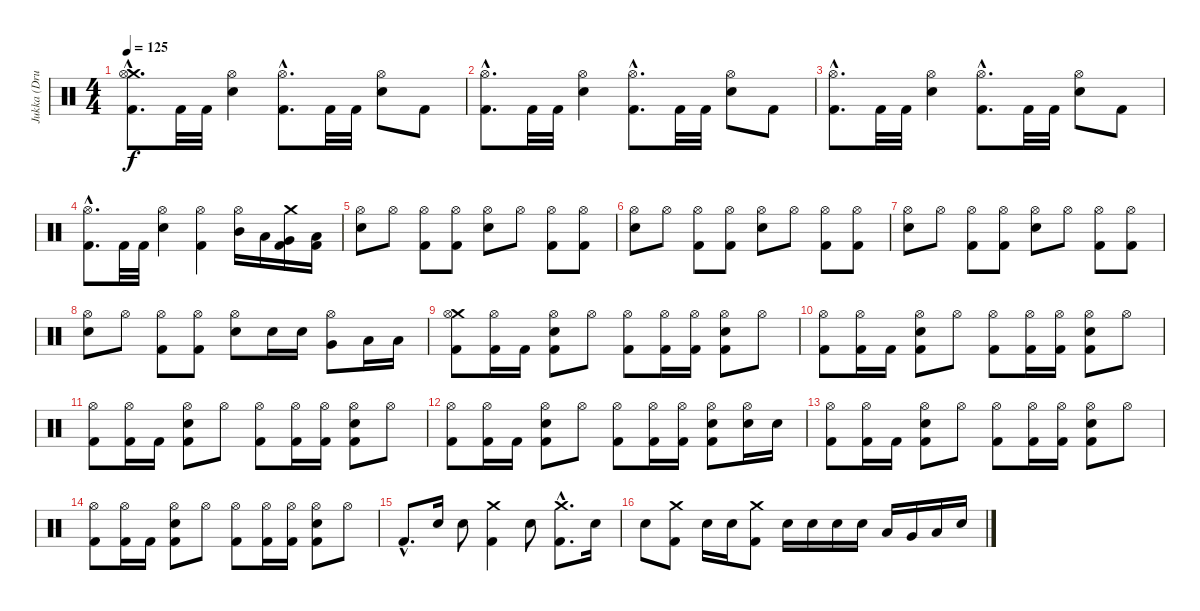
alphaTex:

\track ("Jukka (Drums)" "Jukka (Dru") {instrument percussion}
\staff {score}
\articulation defaults
\ts (4 4)
\tempo 125
\clef neutral
\ks c
("Crash medium (hit)" "Hi-Hat (open)" "Kick (hit) 2"{hac}).8{d dy f} "Kick (hit) 2".32 "Kick (hit) 2".32 ("Hi-Hat (open)" "Electric Snare (hit)").4 ("Hi-Hat (open)"{hac} "Kick (hit) 2"{hac}).8{d} "Kick (hit) 2".32 "Kick (hit) 2".32 ("Hi-Hat (open)" "Electric Snare (hit)").8 "Kick (hit) 2".8 |
("Hi-Hat (open)"{hac} "Kick (hit) 2"{hac}).8{d} "Kick (hit) 2".32 "Kick (hit) 2".32 ("Hi-Hat (open)" "Electric Snare (hit)").4 ("Hi-Hat (open)"{hac} "Kick (hit) 2"{hac}).8{d} "Kick (hit) 2".32 "Kick (hit) 2".32 ("Hi-Hat (open)" "Electric Snare (hit)").8 "Kick (hit) 2".8 |
("Hi-Hat (open)"{hac} "Kick (hit) 2"{hac}).8{d} "Kick (hit) 2".32 "Kick (hit) 2".32 ("Hi-Hat (open)" "Electric Snare (hit)").4 ("Hi-Hat (open)"{hac} "Kick (hit) 2"{hac}).8{d} "Kick (hit) 2".32 "Kick (hit) 2".32 ("Hi-Hat (open)" "Electric Snare (hit)").8 "Kick (hit) 2".8 |
("Hi-Hat (open)"{hac} "Kick (hit) 2"{hac}).8{d} "Kick (hit) 2".32 "Kick (hit) 2".32 ("Hi-Hat (open)" "Electric Snare (hit)").4 ("Hi-Hat (open)" "Kick (hit) 2").4 ("Hi-Hat (open)" "Mid Tom (hit)").16 "Low Tom (hit)".16 ("Crash medium (hit)" "Very Low Tom (hit)" "Kick (hit) 2").16 ("Low Floor Tom (hit)" "Kick (hit) 2").16 |
("Hi-Hat (open)" "Electric Snare (hit)").8 "Hi-Hat (open)".8 ("Hi-Hat (open)" "Kick (hit) 2").8 ("Hi-Hat (open)" "Kick (hit) 2").8 ("Hi-Hat (open)" "Electric Snare (hit)").8 "Hi-Hat (open)".8 ("Hi-Hat (open)" "Kick (hit) 2").8 ("Hi-Hat (open)" "Kick (hit) 2").8 |
("Hi-Hat (open)" "Electric Snare (hit)").8 "Hi-Hat (open)".8 ("Hi-Hat (open)" "Kick (hit) 2").8 ("Hi-Hat (open)" "Kick (hit) 2").8 ("Hi-Hat (open)" "Electric Snare (hit)").8 "Hi-Hat (open)".8 ("Hi-Hat (open)" "Kick (hit) 2").8 ("Hi-Hat (open)" "Kick (hit) 2").8 |
("Hi-Hat (open)" "Electric Snare (hit)").8 "Hi-Hat (open)".8 ("Hi-Hat (open)" "Kick (hit) 2").8 ("Hi-Hat (open)" "Kick (hit) 2").8 ("Hi-Hat (open)" "Electric Snare (hit)").8 "Hi-Hat (open)".8 ("Hi-Hat (open)" "Kick (hit) 2").8 ("Hi-Hat (open)" "Kick (hit) 2").8 |
("Hi-Hat (open)" "Electric Snare (hit)").8 "Hi-Hat (open)".8 ("Hi-Hat (open)" "Kick (hit) 2").8 ("Hi-Hat (open)" "Kick (hit) 2").8 ("Hi-Hat (open)" "Electric Snare (hit)").8 "Electric Snare (hit)".16 "Electric Snare (hit)".16 ("Hi-Hat (open)" "Very Low Tom (hit)").8 "Low Tom (hit)".16 "Low Tom (hit)".16 |
("Crash medium (hit)" "Hi-Hat (open)" "Kick (hit) 2").8 ("Hi-Hat (open)" "Kick (hit) 2").16 "Kick (hit) 2".16 ("Hi-Hat (open)" "Electric Snare (hit)" "Kick (hit) 2").8 "Hi-Hat (open)".8 ("Hi-Hat (open)" "Kick (hit) 2").8 ("Hi-Hat (open)" "Kick (hit) 2").16 ("Hi-Hat (open)" "Kick (hit) 2").16 ("Hi-Hat (open)" "Electric Snare (hit)" "Kick (hit) 2").8 "Hi-Hat (open)".8 |
("Hi-Hat (open)" "Kick (hit) 2").8 ("Hi-Hat (open)" "Kick (hit) 2").16 "Kick (hit) 2".16 ("Hi-Hat (open)" "Electric Snare (hit)" "Kick (hit) 2").8 "Hi-Hat (open)".8 ("Hi-Hat (open)" "Kick (hit) 2").8 ("Hi-Hat (open)" "Kick (hit) 2").16 ("Hi-Hat (open)" "Kick (hit) 2").16 ("Hi-Hat (open)" "Electric Snare (hit)" "Kick (hit) 2").8 "Hi-Hat (open)".8 |
("Hi-Hat (open)" "Kick (hit) 2").8 ("Hi-Hat (open)" "Kick (hit) 2").16 "Kick (hit) 2".16 ("Hi-Hat (open)" "Electric Snare (hit)" "Kick (hit) 2").8 "Hi-Hat (open)".8 ("Hi-Hat (open)" "Kick (hit) 2").8 ("Hi-Hat (open)" "Kick (hit) 2").16 ("Hi-Hat (open)" "Kick (hit) 2").16 ("Hi-Hat (open)" "Electric Snare (hit)" "Kick (hit) 2").8 "Hi-Hat (open)".8 |
("Hi-Hat (open)" "Kick (hit) 2").8 ("Hi-Hat (open)" "Kick (hit) 2").16 "Kick (hit) 2".16 ("Hi-Hat (open)" "Electric Snare (hit)" "Kick (hit) 2").8 "Hi-Hat (open)".8 ("Hi-Hat (open)" "Kick (hit) 2").8 ("Hi-Hat (open)" "Kick (hit) 2").16 ("Hi-Hat (open)" "Kick (hit) 2").16 ("Hi-Hat (open)" "Electric Snare (hit)" "Kick (hit) 2").8 ("Hi-Hat (open)" "Electric Snare (hit)").16 "Electric Snare (hit)".16 |
("Hi-Hat (open)" "Kick (hit) 2").8 ("Hi-Hat (open)" "Kick (hit) 2").16 "Kick (hit) 2".16 ("Hi-Hat (open)" "Electric Snare (hit)" "Kick (hit) 2").8 "Hi-Hat (open)".8 ("Hi-Hat (open)" "Kick (hit) 2").8 ("Hi-Hat (open)" "Kick (hit) 2").16 ("Hi-Hat (open)" "Kick (hit) 2").16 ("Hi-Hat (open)" "Electric Snare (hit)" "Kick (hit) 2").8 "Hi-Hat (open)".8 |
("Hi-Hat (open)" "Kick (hit) 2").8 ("Hi-Hat (open)" "Kick (hit) 2").16 "Kick (hit) 2".16 ("Hi-Hat (open)" "Electric Snare (hit)" "Kick (hit) 2").8 "Hi-Hat (open)".8 ("Hi-Hat (open)" "Kick (hit) 2").8 ("Hi-Hat (open)" "Kick (hit) 2").16 ("Hi-Hat (open)" "Kick (hit) 2").16 ("Hi-Hat (open)" "Electric Snare (hit)" "Kick (hit) 2").8 "Hi-Hat (open)".8 |
"Kick (hit) 2"{hac}.8{d} "Electric Snare (hit)".16 "Electric Snare (hit)".8 ("Crash medium (hit)" "Kick (hit) 2").4 "Electric Snare (hit)".8 ("Crash medium (hit)" "Kick (hit) 2"{hac}).8{d} "Electric Snare (hit)".16 |
"Electric Snare (hit)".8 ("Crash medium (hit)" "Kick (hit) 2").8 "Electric Snare (hit)".16 "Electric Snare (hit)".16 ("Crash medium (hit)" "Kick (hit) 2").8 "Electric Snare (hit)".16 "Electric Snare (hit)".16 "Electric Snare (hit)".16 "Electric Snare (hit)".16 "Low Tom (hit)".16 "Very Low Tom (hit)".16 "Low Floor Tom (hit)".16 "Electric Snare (hit)".16
